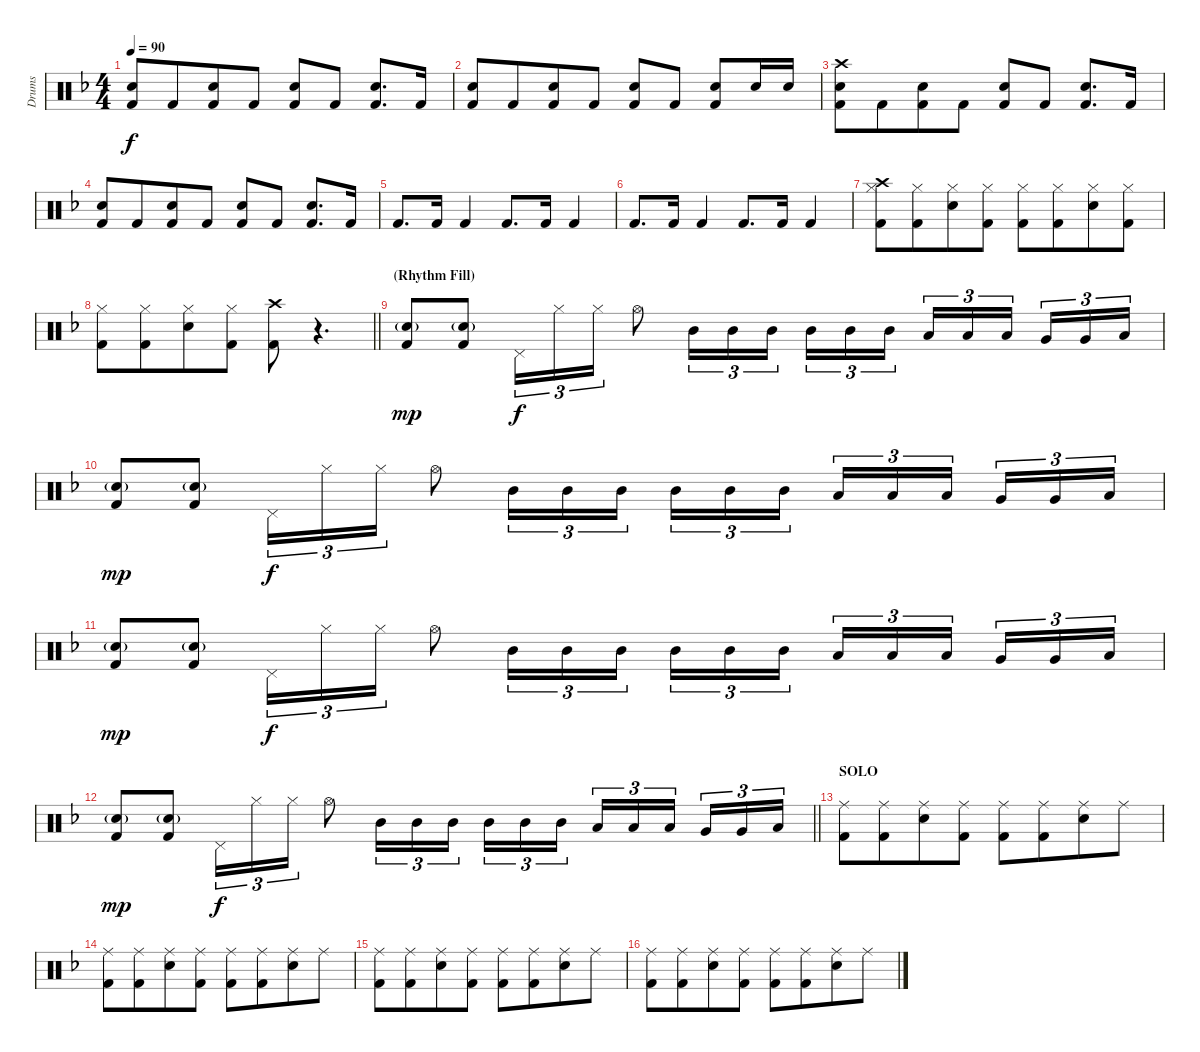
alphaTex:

\track ("Drums" "Drums") {instrument percussion}
\staff {score}
\articulation defaults
\ts (4 4)
\tempo 90
\clef neutral
\ks dminor
("Electric Snare (hit)" "Kick (hit) 2").8{dy f} "Kick (hit) 2".8{beam merge} ("Electric Snare (hit)" "Kick (hit) 2").8 "Kick (hit) 2".8 ("Electric Snare (hit)" "Kick (hit) 2").8 "Kick (hit) 2".8 ("Electric Snare (hit)" "Kick (hit) 2").8{d} "Kick (hit) 2".16 |
("Electric Snare (hit)" "Kick (hit) 2").8 "Kick (hit) 2".8{beam merge} ("Electric Snare (hit)" "Kick (hit) 2").8 "Kick (hit) 2".8 ("Electric Snare (hit)" "Kick (hit) 2").8 "Kick (hit) 2".8 ("Electric Snare (hit)" "Kick (hit) 2").8 "Electric Snare (hit)".16 "Electric Snare (hit)".16 |
("Crash high (hit)" "Electric Snare (hit)" "Kick (hit) 2").8 "Kick (hit) 2".8{beam merge} ("Electric Snare (hit)" "Kick (hit) 2").8 "Kick (hit) 2".8 ("Electric Snare (hit)" "Kick (hit) 2").8 "Kick (hit) 2".8 ("Electric Snare (hit)" "Kick (hit) 2").8{d} "Kick (hit) 2".16 |
("Electric Snare (hit)" "Kick (hit) 2").8 "Kick (hit) 2".8{beam merge} ("Electric Snare (hit)" "Kick (hit) 2").8 "Kick (hit) 2".8 ("Electric Snare (hit)" "Kick (hit) 2").8 "Kick (hit) 2".8 ("Electric Snare (hit)" "Kick (hit) 2").8{d} "Kick (hit) 2".16 |
"Kick (hit) 2".8{d} "Kick (hit) 2".16 "Kick (hit) 2".4 "Kick (hit) 2".8{d} "Kick (hit) 2".16 "Kick (hit) 2".4 |
"Kick (hit) 2".8{d} "Kick (hit) 2".16 "Kick (hit) 2".4 "Kick (hit) 2".8{d} "Kick (hit) 2".16 "Kick (hit) 2".4 |
("Crash high (hit)" "Hi-Hat (closed)" "Kick (hit) 2").8 ("Hi-Hat (closed)" "Kick (hit) 2").8{beam merge} ("Hi-Hat (closed)" "Electric Snare (hit)").8 ("Hi-Hat (closed)" "Kick (hit) 2").8 ("Hi-Hat (closed)" "Kick (hit) 2").8 ("Hi-Hat (closed)" "Kick (hit) 2").8{beam merge} ("Hi-Hat (closed)" "Electric Snare (hit)").8 ("Hi-Hat (closed)" "Kick (hit) 2").8 |
\barLineRight lightlight
("Hi-Hat (closed)" "Kick (hit) 2").8 ("Hi-Hat (closed)" "Kick (hit) 2").8{beam merge} ("Hi-Hat (closed)" "Electric Snare (hit)").8 ("Hi-Hat (closed)" "Kick (hit) 2").8 ("Crash high (hit)" "Kick (hit) 2").8 r.4{d} |
\section ("" "(Rhythm Fill)")
("Hand Clap (hit)"{g} "Kick (hit) 2").8{dy mp} ("Hand Clap (hit)"{g} "Kick (hit) 2").8 "Pedal Hi-Hat (hit)".16{tu (3 2) dy f} "Hi-Hat (closed)".16{tu (3 2)} "Hi-Hat (closed)".16{tu (3 2)} "Hi-Hat (open)".8 "Mid Tom (hit)".16{tu (3 2)} "Mid Tom (hit)".16{tu (3 2)} "Mid Tom (hit)".16{tu (3 2) beam splitsecondary} "Mid Tom (hit)".16{tu (3 2)} "Mid Tom (hit)".16{tu (3 2)} "Mid Tom (hit)".16{tu (3 2)} "Low Tom (hit)".16{tu (3 2)} "Low Tom (hit)".16{tu (3 2)} "Low Tom (hit)".16{tu (3 2) beam splitsecondary} "Very Low Tom (hit)".16{tu (3 2)} "Very Low Tom (hit)".16{tu (3 2)} "Low Floor Tom (hit)".16{tu (3 2)} |
("Hand Clap (hit)"{g} "Kick (hit) 2").8{dy mp} ("Hand Clap (hit)"{g} "Kick (hit) 2").8 "Pedal Hi-Hat (hit)".16{tu (3 2) dy f} "Hi-Hat (closed)".16{tu (3 2)} "Hi-Hat (closed)".16{tu (3 2)} "Hi-Hat (open)".8 "Mid Tom (hit)".16{tu (3 2)} "Mid Tom (hit)".16{tu (3 2)} "Mid Tom (hit)".16{tu (3 2) beam splitsecondary} "Mid Tom (hit)".16{tu (3 2)} "Mid Tom (hit)".16{tu (3 2)} "Mid Tom (hit)".16{tu (3 2)} "Low Tom (hit)".16{tu (3 2)} "Low Tom (hit)".16{tu (3 2)} "Low Tom (hit)".16{tu (3 2) beam splitsecondary} "Very Low Tom (hit)".16{tu (3 2)} "Very Low Tom (hit)".16{tu (3 2)} "Low Floor Tom (hit)".16{tu (3 2)} |
("Hand Clap (hit)"{g} "Kick (hit) 2").8{dy mp} ("Hand Clap (hit)"{g} "Kick (hit) 2").8 "Pedal Hi-Hat (hit)".16{tu (3 2) dy f} "Hi-Hat (closed)".16{tu (3 2)} "Hi-Hat (closed)".16{tu (3 2)} "Hi-Hat (open)".8 "Mid Tom (hit)".16{tu (3 2)} "Mid Tom (hit)".16{tu (3 2)} "Mid Tom (hit)".16{tu (3 2) beam splitsecondary} "Mid Tom (hit)".16{tu (3 2)} "Mid Tom (hit)".16{tu (3 2)} "Mid Tom (hit)".16{tu (3 2)} "Low Tom (hit)".16{tu (3 2)} "Low Tom (hit)".16{tu (3 2)} "Low Tom (hit)".16{tu (3 2) beam splitsecondary} "Very Low Tom (hit)".16{tu (3 2)} "Very Low Tom (hit)".16{tu (3 2)} "Low Floor Tom (hit)".16{tu (3 2)} |
\barLineRight lightlight
("Hand Clap (hit)"{g} "Kick (hit) 2").8{dy mp} ("Hand Clap (hit)"{g} "Kick (hit) 2").8 "Pedal Hi-Hat (hit)".16{tu (3 2) dy f} "Hi-Hat (closed)".16{tu (3 2)} "Hi-Hat (closed)".16{tu (3 2)} "Hi-Hat (open)".8 "Mid Tom (hit)".16{tu (3 2)} "Mid Tom (hit)".16{tu (3 2)} "Mid Tom (hit)".16{tu (3 2) beam splitsecondary} "Mid Tom (hit)".16{tu (3 2)} "Mid Tom (hit)".16{tu (3 2)} "Mid Tom (hit)".16{tu (3 2)} "Low Tom (hit)".16{tu (3 2)} "Low Tom (hit)".16{tu (3 2)} "Low Tom (hit)".16{tu (3 2) beam splitsecondary} "Very Low Tom (hit)".16{tu (3 2)} "Very Low Tom (hit)".16{tu (3 2)} "Low Floor Tom (hit)".16{tu (3 2)} |
\section ("" "SOLO")
("Ride (middle)" "Kick (hit) 2").8 ("Ride (middle)" "Kick (hit) 2").8{beam merge} ("Ride (middle)" "Electric Snare (hit)").8 ("Ride (middle)" "Kick (hit) 2").8 ("Ride (middle)" "Kick (hit) 2").8 ("Ride (middle)" "Kick (hit) 2").8{beam merge} ("Ride (middle)" "Electric Snare (hit)").8 "Ride (middle)".8 |
("Ride (middle)" "Kick (hit) 2").8 ("Ride (middle)" "Kick (hit) 2").8{beam merge} ("Ride (middle)" "Electric Snare (hit)").8 ("Ride (middle)" "Kick (hit) 2").8 ("Ride (middle)" "Kick (hit) 2").8 ("Ride (middle)" "Kick (hit) 2").8{beam merge} ("Ride (middle)" "Electric Snare (hit)").8 "Ride (middle)".8 |
("Ride (middle)" "Kick (hit) 2").8 ("Ride (middle)" "Kick (hit) 2").8{beam merge} ("Ride (middle)" "Electric Snare (hit)").8 ("Ride (middle)" "Kick (hit) 2").8 ("Ride (middle)" "Kick (hit) 2").8 ("Ride (middle)" "Kick (hit) 2").8{beam merge} ("Ride (middle)" "Electric Snare (hit)").8 "Ride (middle)".8 |
("Ride (middle)" "Kick (hit) 2").8 ("Ride (middle)" "Kick (hit) 2").8{beam merge} ("Ride (middle)" "Electric Snare (hit)").8 ("Ride (middle)" "Kick (hit) 2").8 ("Ride (middle)" "Kick (hit) 2").8 ("Ride (middle)" "Kick (hit) 2").8{beam merge} ("Ride (middle)" "Electric Snare (hit)").8 "Ride (middle)".8
